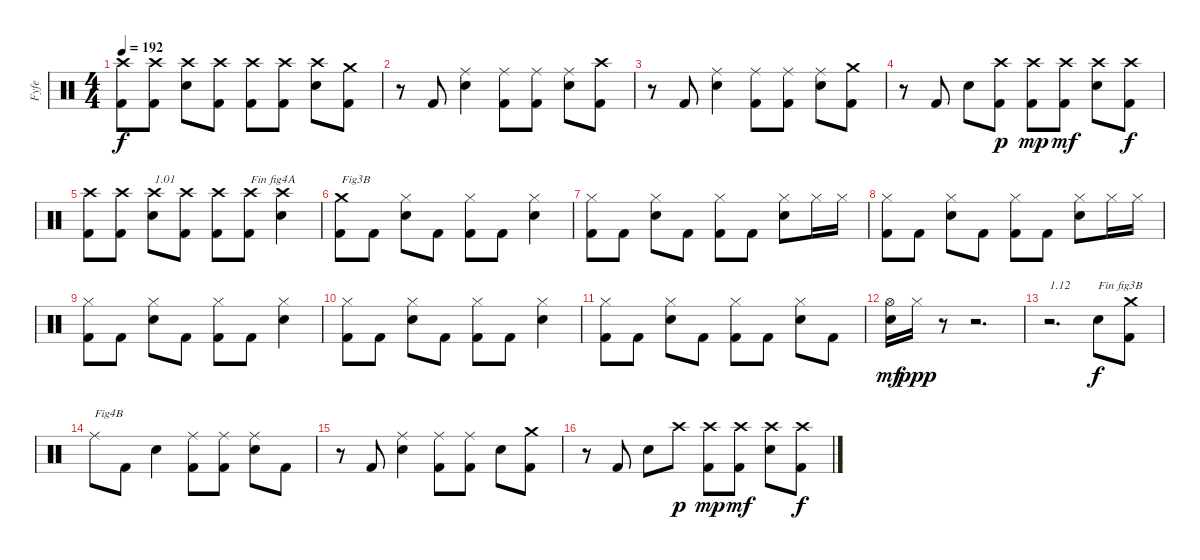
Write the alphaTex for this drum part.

\track ("Fyfe" "Fyfe") {instrument percussion}
\staff {score}
\articulation defaults
\ts (4 4)
\tempo 192
\clef neutral
\ks c
("Kick (hit) 2" "Crash high (hit)").8{dy f} ("Kick (hit) 2" "Crash high (hit)").8 ("Electric Snare (hit)" "Crash high (hit)").8 ("Kick (hit) 2" "Crash high (hit)").8 ("Kick (hit) 2" "Crash high (hit)").8 ("Kick (hit) 2" "Crash high (hit)").8 ("Electric Snare (hit)" "Crash high (hit)").8 ("Kick (hit) 2" "Crash medium (hit)").8 |
r.8 "Kick (hit) 2".8 ("Electric Snare (hit)" "Ride (middle)").4 ("Kick (hit) 2" "Ride (middle)").8 ("Kick (hit) 2" "Ride (middle)").8 ("Electric Snare (hit)" "Ride (middle)").8 ("Kick (hit) 2" "Crash high (hit)").8 |
r.8 "Kick (hit) 2".8 ("Electric Snare (hit)" "Ride (middle)").4 ("Kick (hit) 2" "Ride (middle)").8 ("Kick (hit) 2" "Ride (middle)").8 ("Electric Snare (hit)" "Ride (middle)").8 ("Kick (hit) 2" "Crash medium (hit)").8 |
r.8 "Kick (hit) 2".8 "Electric Snare (hit)".8 ("Kick (hit) 2" "Crash high (hit)").8{dy p} ("Kick (hit) 2" "Crash high (hit)").8{dy mp} ("Kick (hit) 2" "Crash high (hit)").8{dy mf} ("Electric Snare (hit)" "Crash high (hit)").8 ("Kick (hit) 2" "Crash high (hit)").8{dy f} |
("Kick (hit) 2" "Crash high (hit)").8 ("Kick (hit) 2" "Crash high (hit)").8 ("Electric Snare (hit)" "Crash high (hit)").8{txt "1.01"} ("Kick (hit) 2" "Crash high (hit)").8 ("Kick (hit) 2" "Crash high (hit)").8 ("Kick (hit) 2" "Crash high (hit)").8{txt "Fin fig4A"} ("Electric Snare (hit)" "Crash high (hit)").4 |
("Kick (hit) 2" "Crash medium (hit)").8{txt "Fig3B"} "Kick (hit) 2".8 ("Electric Snare (hit)" "Hi-Hat (closed)").8 "Kick (hit) 2".8 ("Kick (hit) 2" "Hi-Hat (closed)").8 "Kick (hit) 2".8 ("Electric Snare (hit)" "Hi-Hat (closed)").4 |
("Kick (hit) 2" "Hi-Hat (closed)").8 "Kick (hit) 2".8 ("Electric Snare (hit)" "Hi-Hat (closed)").8 "Kick (hit) 2".8 ("Kick (hit) 2" "Hi-Hat (closed)").8 "Kick (hit) 2".8 ("Electric Snare (hit)" "Hi-Hat (closed)").8 "Hi-Hat (closed)".16 "Hi-Hat (closed)".16 |
("Kick (hit) 2" "Hi-Hat (closed)").8 "Kick (hit) 2".8 ("Electric Snare (hit)" "Hi-Hat (closed)").8 "Kick (hit) 2".8 ("Kick (hit) 2" "Hi-Hat (closed)").8 "Kick (hit) 2".8 ("Electric Snare (hit)" "Hi-Hat (closed)").8 "Hi-Hat (closed)".16 "Hi-Hat (closed)".16 |
("Kick (hit) 2" "Hi-Hat (closed)").8 "Kick (hit) 2".8 ("Electric Snare (hit)" "Hi-Hat (closed)").8 "Kick (hit) 2".8 ("Kick (hit) 2" "Hi-Hat (closed)").8 "Kick (hit) 2".8 ("Electric Snare (hit)" "Hi-Hat (closed)").4 |
("Kick (hit) 2" "Hi-Hat (closed)").8 "Kick (hit) 2".8 ("Electric Snare (hit)" "Hi-Hat (closed)").8 "Kick (hit) 2".8 ("Kick (hit) 2" "Hi-Hat (closed)").8 "Kick (hit) 2".8 ("Electric Snare (hit)" "Hi-Hat (closed)").4 |
("Kick (hit) 2" "Hi-Hat (closed)").8 "Kick (hit) 2".8 ("Electric Snare (hit)" "Hi-Hat (closed)").8 "Kick (hit) 2".8 ("Kick (hit) 2" "Hi-Hat (closed)").8 "Kick (hit) 2".8 ("Electric Snare (hit)" "Hi-Hat (closed)").8 "Kick (hit) 2".8 |
("Electric Snare (hit)" "Hi-Hat (open)").16{dy mf} "Hi-Hat (closed)".16{dy ppp} r.8 r.2{d} |
r.2{d txt "1.12"} "Electric Snare (hit)".8{txt "Fin fig3B" dy f} ("Kick (hit) 2" "Crash medium (hit)").8 |
"Ride (middle)".8{txt "Fig4B"} "Kick (hit) 2".8 "Electric Snare (hit)".4 ("Kick (hit) 2" "Ride (middle)").8 ("Kick (hit) 2" "Ride (middle)").8 ("Electric Snare (hit)" "Ride (middle)").8 "Kick (hit) 2".8 |
r.8 "Kick (hit) 2".8 ("Electric Snare (hit)" "Ride (middle)").4 ("Kick (hit) 2" "Ride (middle)").8 ("Kick (hit) 2" "Ride (middle)").8 "Electric Snare (hit)".8 ("Kick (hit) 2" "Crash medium (hit)").8 |
r.8 "Kick (hit) 2".8 "Electric Snare (hit)".8 "Crash high (hit)".8{dy p} ("Kick (hit) 2" "Crash high (hit)").8{dy mp} ("Kick (hit) 2" "Crash high (hit)").8{dy mf} ("Electric Snare (hit)" "Crash high (hit)").8 ("Kick (hit) 2" "Crash high (hit)").8{dy f}
